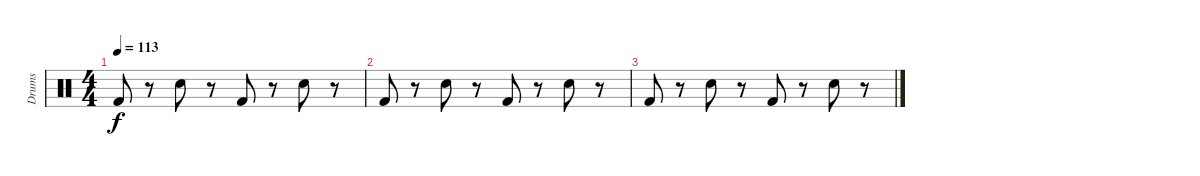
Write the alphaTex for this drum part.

\track ("Drums" "Drums") {instrument percussion}
\staff {score}
\articulation defaults
\ts (4 4)
\tempo 113
\clef neutral
\ks c "Kick (hit) 2".8{dy f}
r.8 "Electric Snare (hit)".8 r.8 "Kick (hit) 2".8 r.8 "Electric Snare (hit)".8 r.8 |
"Kick (hit) 2".8 r.8 "Electric Snare (hit)".8 r.8 "Kick (hit) 2".8 r.8 "Electric Snare (hit)".8 r.8 |
"Kick (hit) 2".8 r.8 "Electric Snare (hit)".8 r.8 "Kick (hit) 2".8 r.8 "Electric Snare (hit)".8 r.8
